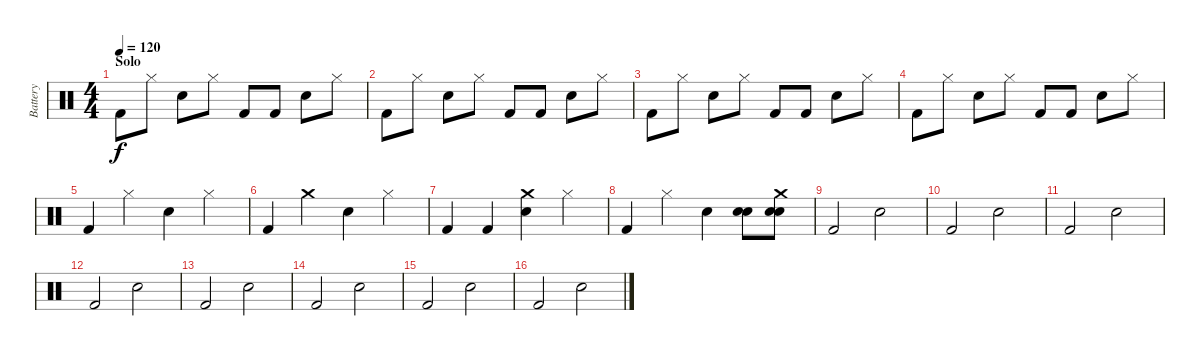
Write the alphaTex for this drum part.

\track ("Battery" "Battery") {instrument percussion}
\staff {score}
\articulation defaults
\ts (4 4)
\section ("" "Solo")
\tempo 120
\clef neutral
\ks c "Kick (hit) 2".8{dy f} "Hi-Hat (closed)".8 "Snare (hit) 2".8 "Hi-Hat (closed)".8 "Kick (hit) 2".8 "Kick (hit) 2".8 "Snare (hit) 2".8 "Hi-Hat (closed)".8
|
"Kick (hit) 2".8 "Hi-Hat (closed)".8 "Snare (hit) 2".8 "Hi-Hat (closed)".8 "Kick (hit) 2".8 "Kick (hit) 2".8 "Snare (hit) 2".8 "Hi-Hat (closed)".8 |
"Kick (hit) 2".8 "Hi-Hat (closed)".8 "Snare (hit) 2".8 "Hi-Hat (closed)".8 "Kick (hit) 2".8 "Kick (hit) 2".8 "Snare (hit) 2".8 "Hi-Hat (closed)".8 |
"Kick (hit) 2".8 "Hi-Hat (closed)".8 "Snare (hit) 2".8 "Hi-Hat (closed)".8 "Kick (hit) 2".8 "Kick (hit) 2".8 "Snare (hit) 2".8 "Hi-Hat (closed)".8 |
"Kick (hit) 2".4 "Hi-Hat (closed)".4 "Snare (hit) 2".4 "Hi-Hat (closed)".4 |
"Kick (hit) 2".4 "Crash medium (hit)".4 "Snare (hit) 2".4 "Hi-Hat (closed)".4 |
"Kick (hit) 2".4 "Kick (hit) 2".4 ("Snare (hit) 2" "Crash medium (hit)").4 "Hi-Hat (closed)".4 |
"Kick (hit) 2".4 "Hi-Hat (closed)".4 "Snare (hit) 2".4 ("Snare (hit) 2" "Snare (hit) 2").8 ("Snare (hit) 2" "Snare (hit) 2" "Crash medium (hit)").8 |
"Kick (hit) 2".2 "Snare (hit) 2".2 |
"Kick (hit) 2".2 "Snare (hit) 2".2 |
"Kick (hit) 2".2 "Snare (hit) 2".2 |
"Kick (hit) 2".2 "Snare (hit) 2".2 |
"Kick (hit) 2".2 "Snare (hit) 2".2 |
"Kick (hit) 2".2 "Snare (hit) 2".2 |
"Kick (hit) 2".2 "Snare (hit) 2".2 |
"Kick (hit) 2".2 "Snare (hit) 2".2
